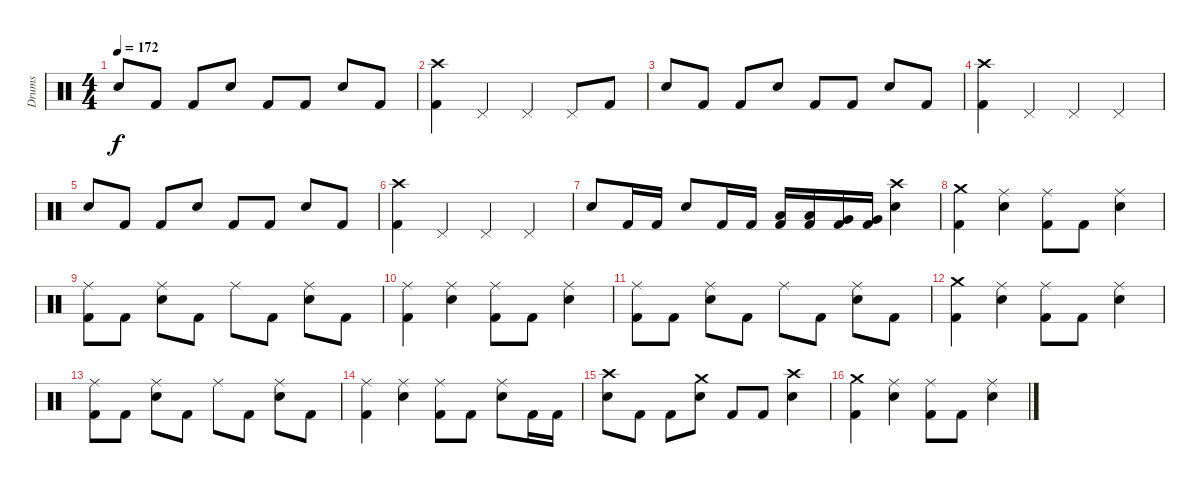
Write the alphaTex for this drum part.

\track ("Drums" "Drums") {instrument percussion}
\staff {score}
\articulation defaults
\ts (4 4)
\tempo 172
\clef neutral
\ks c "Electric Snare (hit)".8{dy f} "Kick (hit) 2".8 "Kick (hit) 2".8 "Electric Snare (hit)".8 "Kick (hit) 2".8 "Kick (hit) 2".8 "Electric Snare (hit)".8 "Kick (hit) 2".8
|
("Crash high (hit)" "Kick (hit) 2").4 "Pedal Hi-Hat (hit)".4 "Pedal Hi-Hat (hit)".4 "Pedal Hi-Hat (hit)".8 "Kick (hit) 2".8 |
"Electric Snare (hit)".8 "Kick (hit) 2".8 "Kick (hit) 2".8 "Electric Snare (hit)".8 "Kick (hit) 2".8 "Kick (hit) 2".8 "Electric Snare (hit)".8 "Kick (hit) 2".8 |
("Crash high (hit)" "Kick (hit) 2").4 "Pedal Hi-Hat (hit)".4 "Pedal Hi-Hat (hit)".4 "Pedal Hi-Hat (hit)".4 |
"Electric Snare (hit)".8 "Kick (hit) 2".8 "Kick (hit) 2".8 "Electric Snare (hit)".8 "Kick (hit) 2".8 "Kick (hit) 2".8 "Electric Snare (hit)".8 "Kick (hit) 2".8 |
("Crash high (hit)" "Kick (hit) 2").4 "Pedal Hi-Hat (hit)".4 "Pedal Hi-Hat (hit)".4 "Pedal Hi-Hat (hit)".4 |
"Electric Snare (hit)".8 "Kick (hit) 2".16 "Kick (hit) 2".16 "Electric Snare (hit)".8 "Kick (hit) 2".16 "Kick (hit) 2".16 ("Low Tom (hit)" "Kick (hit) 2").16 ("Low Tom (hit)" "Kick (hit) 2").16 ("Very Low Tom (hit)" "Kick (hit) 2").16 ("Very Low Tom (hit)" "Kick (hit) 2").16 ("Crash high (hit)" "Electric Snare (hit)").4 |
("Crash medium (hit)" "Kick (hit) 2").4 ("Ride (middle)" "Electric Snare (hit)").4 ("Ride (middle)" "Kick (hit) 2").8 "Kick (hit) 2".8 ("Ride (middle)" "Electric Snare (hit)").4 |
("Ride (middle)" "Kick (hit) 2").8 "Kick (hit) 2".8 ("Ride (middle)" "Electric Snare (hit)").8 "Kick (hit) 2".8 "Ride (middle)".8 "Kick (hit) 2".8 ("Ride (middle)" "Electric Snare (hit)").8 "Kick (hit) 2".8 |
("Ride (middle)" "Kick (hit) 2").4 ("Ride (middle)" "Electric Snare (hit)").4 ("Ride (middle)" "Kick (hit) 2").8 "Kick (hit) 2".8 ("Ride (middle)" "Electric Snare (hit)").4 |
("Ride (middle)" "Kick (hit) 2").8 "Kick (hit) 2".8 ("Ride (middle)" "Electric Snare (hit)").8 "Kick (hit) 2".8 "Ride (middle)".8 "Kick (hit) 2".8 ("Ride (middle)" "Electric Snare (hit)").8 "Kick (hit) 2".8 |
("Crash medium (hit)" "Kick (hit) 2").4 ("Ride (middle)" "Electric Snare (hit)").4 ("Ride (middle)" "Kick (hit) 2").8 "Kick (hit) 2".8 ("Ride (middle)" "Electric Snare (hit)").4 |
("Ride (middle)" "Kick (hit) 2").8 "Kick (hit) 2".8 ("Ride (middle)" "Electric Snare (hit)").8 "Kick (hit) 2".8 "Ride (middle)".8 "Kick (hit) 2".8 ("Ride (middle)" "Electric Snare (hit)").8 "Kick (hit) 2".8 |
("Ride (middle)" "Kick (hit) 2").4 ("Ride (middle)" "Electric Snare (hit)").4 ("Ride (middle)" "Kick (hit) 2").8 "Kick (hit) 2".8 ("Ride (middle)" "Electric Snare (hit)").8 "Kick (hit) 2".16 "Kick (hit) 2".16 |
("Crash high (hit)" "Electric Snare (hit)").8 "Kick (hit) 2".8 "Kick (hit) 2".8 ("Crash medium (hit)" "Electric Snare (hit)").8 "Kick (hit) 2".8 "Kick (hit) 2".8 ("Crash high (hit)" "Electric Snare (hit)").4 |
\section ("" "")
("Crash medium (hit)" "Kick (hit) 2").4 ("Ride (middle)" "Electric Snare (hit)").4 ("Ride (middle)" "Kick (hit) 2").8 "Kick (hit) 2".8 ("Ride (middle)" "Electric Snare (hit)").4
